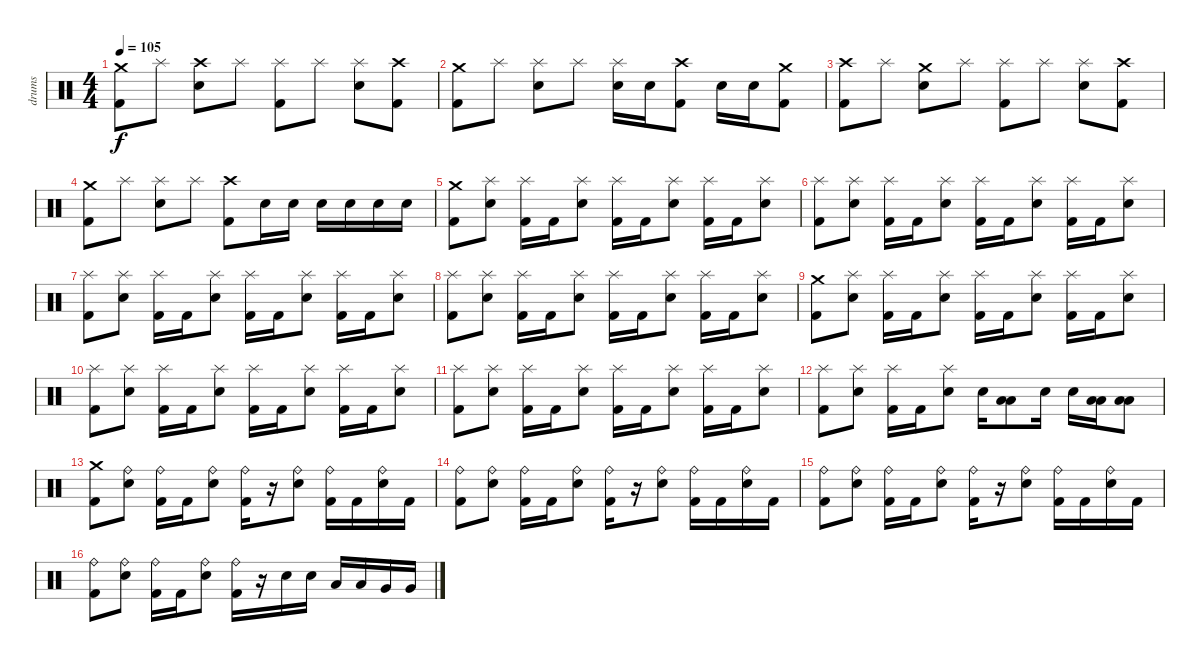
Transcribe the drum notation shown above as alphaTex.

\track ("drums" "drums") {instrument percussion}
\staff {score}
\articulation defaults
\ts (4 4)
\tempo 105
\clef neutral
\ks c
("Crash medium (hit)" "Kick (hit) 2").8{dy f} "Splash (hit)".8 ("Crash high (hit)" "Electric Snare (hit)").8 "Splash (hit)".8 ("Splash (hit)" "Kick (hit) 2").8 "Splash (hit)".8 ("Splash (hit)" "Electric Snare (hit)").8 ("Crash high (hit)" "Kick (hit) 2").8 |
("Crash medium (hit)" "Kick (hit) 2").8 "Splash (hit)".8 ("Splash (hit)" "Electric Snare (hit)").8 "Splash (hit)".8 ("Splash (hit)" "Electric Snare (hit)").16 "Electric Snare (hit)".16 ("Crash high (hit)" "Kick (hit) 2").8 "Electric Snare (hit)".16 "Electric Snare (hit)".16 ("Crash medium (hit)" "Kick (hit) 2").8 |
("Crash high (hit)" "Kick (hit) 2").8 "Splash (hit)".8 ("Crash medium (hit)" "Electric Snare (hit)").8 "Splash (hit)".8 ("Splash (hit)" "Kick (hit) 2").8 "Splash (hit)".8 ("Splash (hit)" "Electric Snare (hit)").8 ("Crash high (hit)" "Kick (hit) 2").8 |
("Crash medium (hit)" "Kick (hit) 2").8 "Splash (hit)".8 ("Splash (hit)" "Electric Snare (hit)").8 "Splash (hit)".8 ("Crash high (hit)" "Kick (hit) 2").8 "Electric Snare (hit)".16 "Electric Snare (hit)".16 "Electric Snare (hit)".16 "Electric Snare (hit)".16 "Electric Snare (hit)".16 "Electric Snare (hit)".16 |
("Crash medium (hit)" "Kick (hit) 2").8 ("Splash (hit)" "Electric Snare (hit)").8 ("Splash (hit)" "Kick (hit) 2").16 "Kick (hit) 2".16 ("Splash (hit)" "Electric Snare (hit)").8 ("Splash (hit)" "Kick (hit) 2").16 "Kick (hit) 2".16 ("Splash (hit)" "Electric Snare (hit)").8 ("Splash (hit)" "Kick (hit) 2").16 "Kick (hit) 2".16 ("Splash (hit)" "Electric Snare (hit)").8 |
("Splash (hit)" "Kick (hit) 2").8 ("Splash (hit)" "Electric Snare (hit)").8 ("Splash (hit)" "Kick (hit) 2").16 "Kick (hit) 2".16 ("Splash (hit)" "Electric Snare (hit)").8 ("Splash (hit)" "Kick (hit) 2").16 "Kick (hit) 2".16 ("Splash (hit)" "Electric Snare (hit)").8 ("Splash (hit)" "Kick (hit) 2").16 "Kick (hit) 2".16 ("Splash (hit)" "Electric Snare (hit)").8 |
("Splash (hit)" "Kick (hit) 2").8 ("Splash (hit)" "Electric Snare (hit)").8 ("Splash (hit)" "Kick (hit) 2").16 "Kick (hit) 2".16 ("Splash (hit)" "Electric Snare (hit)").8 ("Splash (hit)" "Kick (hit) 2").16 "Kick (hit) 2".16 ("Splash (hit)" "Electric Snare (hit)").8 ("Splash (hit)" "Kick (hit) 2").16 "Kick (hit) 2".16 ("Splash (hit)" "Electric Snare (hit)").8 |
("Splash (hit)" "Kick (hit) 2").8 ("Splash (hit)" "Electric Snare (hit)").8 ("Splash (hit)" "Kick (hit) 2").16 "Kick (hit) 2".16 ("Splash (hit)" "Electric Snare (hit)").8 ("Splash (hit)" "Kick (hit) 2").16 "Kick (hit) 2".16 ("Splash (hit)" "Electric Snare (hit)").8 ("Splash (hit)" "Kick (hit) 2").16 "Kick (hit) 2".16 ("Splash (hit)" "Electric Snare (hit)").8 |
("Crash medium (hit)" "Kick (hit) 2").8 ("Splash (hit)" "Electric Snare (hit)").8 ("Splash (hit)" "Kick (hit) 2").16 "Kick (hit) 2".16 ("Splash (hit)" "Electric Snare (hit)").8 ("Splash (hit)" "Kick (hit) 2").16 "Kick (hit) 2".16 ("Splash (hit)" "Electric Snare (hit)").8 ("Splash (hit)" "Kick (hit) 2").16 "Kick (hit) 2".16 ("Splash (hit)" "Electric Snare (hit)").8 |
("Splash (hit)" "Kick (hit) 2").8 ("Splash (hit)" "Electric Snare (hit)").8 ("Splash (hit)" "Kick (hit) 2").16 "Kick (hit) 2".16 ("Splash (hit)" "Electric Snare (hit)").8 ("Splash (hit)" "Kick (hit) 2").16 "Kick (hit) 2".16 ("Splash (hit)" "Electric Snare (hit)").8 ("Splash (hit)" "Kick (hit) 2").16 "Kick (hit) 2".16 ("Splash (hit)" "Electric Snare (hit)").8 |
("Splash (hit)" "Kick (hit) 2").8 ("Splash (hit)" "Electric Snare (hit)").8 ("Splash (hit)" "Kick (hit) 2").16 "Kick (hit) 2".16 ("Splash (hit)" "Electric Snare (hit)").8 ("Splash (hit)" "Kick (hit) 2").16 "Kick (hit) 2".16 ("Splash (hit)" "Electric Snare (hit)").8 ("Splash (hit)" "Kick (hit) 2").16 "Kick (hit) 2".16 ("Splash (hit)" "Electric Snare (hit)").8 |
("Splash (hit)" "Kick (hit) 2").8 ("Splash (hit)" "Electric Snare (hit)").8 ("Splash (hit)" "Kick (hit) 2").16 "Kick (hit) 2".16 ("Splash (hit)" "Electric Snare (hit)").8 "Electric Snare (hit)".16 ("Low Tom (hit)" "Low Floor Tom (hit)").8 "Electric Snare (hit)".16 "Electric Snare (hit)".16 ("Low Tom (hit)" "Low Floor Tom (hit)").16 ("Low Tom (hit)" "Low Floor Tom (hit)").8 |
("Crash medium (hit)" "Kick (hit) 2").8 ("Ride (bell)" "Electric Snare (hit)").8 ("Ride (bell)" "Kick (hit) 2").16 "Kick (hit) 2".16 ("Ride (bell)" "Electric Snare (hit)").8 ("Ride (bell)" "Kick (hit) 2").16 r.16 ("Ride (bell)" "Electric Snare (hit)").8 ("Ride (bell)" "Kick (hit) 2").16 "Kick (hit) 2".16 ("Ride (bell)" "Electric Snare (hit)").16 "Kick (hit) 2".16 |
("Ride (bell)" "Kick (hit) 2").8 ("Ride (bell)" "Electric Snare (hit)").8 ("Ride (bell)" "Kick (hit) 2").16 "Kick (hit) 2".16 ("Ride (bell)" "Electric Snare (hit)").8 ("Ride (bell)" "Kick (hit) 2").16 r.16 ("Ride (bell)" "Electric Snare (hit)").8 ("Ride (bell)" "Kick (hit) 2").16 "Kick (hit) 2".16 ("Ride (bell)" "Electric Snare (hit)").16 "Kick (hit) 2".16 |
("Ride (bell)" "Kick (hit) 2").8 ("Ride (bell)" "Electric Snare (hit)").8 ("Ride (bell)" "Kick (hit) 2").16 "Kick (hit) 2".16 ("Ride (bell)" "Electric Snare (hit)").8 ("Ride (bell)" "Kick (hit) 2").16 r.16 ("Ride (bell)" "Electric Snare (hit)").8 ("Ride (bell)" "Kick (hit) 2").16 "Kick (hit) 2".16 ("Ride (bell)" "Electric Snare (hit)").16 "Kick (hit) 2".16 |
("Ride (bell)" "Kick (hit) 2").8 ("Ride (bell)" "Electric Snare (hit)").8 ("Ride (bell)" "Kick (hit) 2").16 "Kick (hit) 2".16 ("Ride (bell)" "Electric Snare (hit)").8 ("Ride (bell)" "Kick (hit) 2").16 r.16 "Electric Snare (hit)".16 "Electric Snare (hit)".16 "Low Tom (hit)".16 "Low Tom (hit)".16 "Very Low Tom (hit)".16 "Very Low Tom (hit)".16
